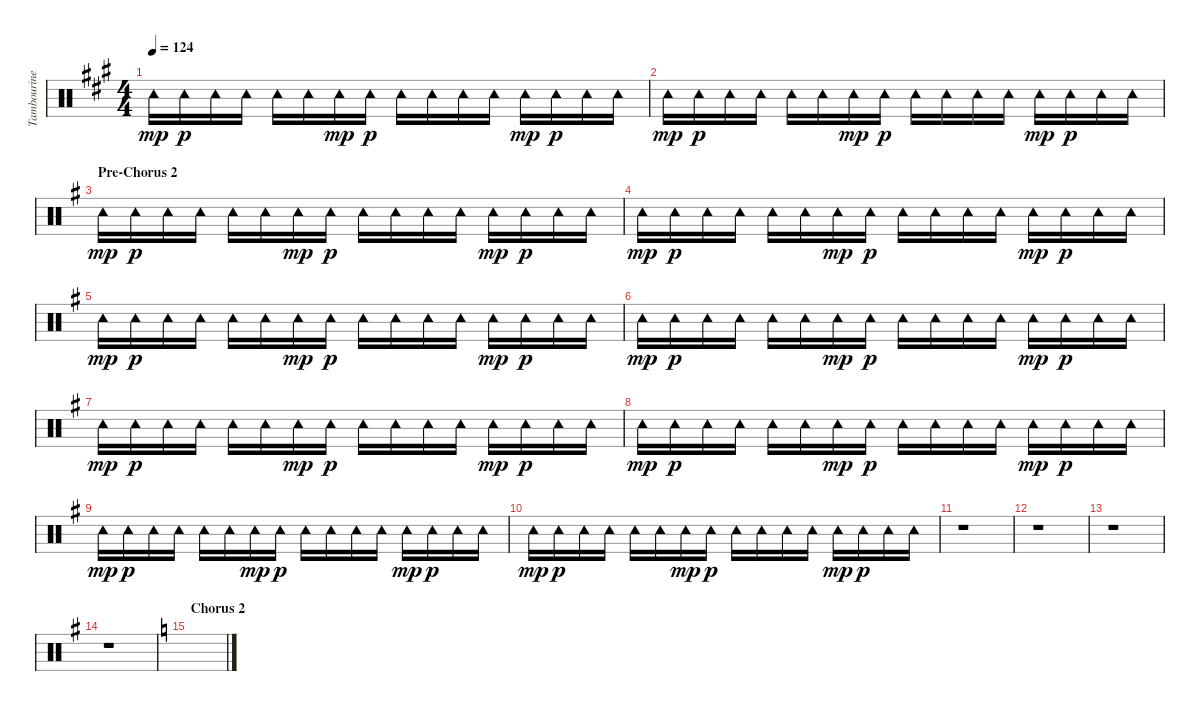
\track ("Tambourine" "Tambourine") {instrument percussion}
\staff {score}
\articulation defaults
\ts (4 4)
\tempo 124
\clef neutral
\ks a "Tambourine (hit)".16{dy mp} "Tambourine (hit)".16{dy p} "Tambourine (hit)".16 "Tambourine (hit)".16 "Tambourine (hit)".16 "Tambourine (hit)".16 "Tambourine (hit)".16{dy mp} "Tambourine (hit)".16{dy p} "Tambourine (hit)".16 "Tambourine (hit)".16 "Tambourine (hit)".16 "Tambourine (hit)".16 "Tambourine (hit)".16{dy mp} "Tambourine (hit)".16{dy p} "Tambourine (hit)".16 "Tambourine (hit)".16
|
"Tambourine (hit)".16{dy mp} "Tambourine (hit)".16{dy p} "Tambourine (hit)".16 "Tambourine (hit)".16 "Tambourine (hit)".16 "Tambourine (hit)".16 "Tambourine (hit)".16{dy mp} "Tambourine (hit)".16{dy p} "Tambourine (hit)".16 "Tambourine (hit)".16 "Tambourine (hit)".16 "Tambourine (hit)".16 "Tambourine (hit)".16{dy mp} "Tambourine (hit)".16{dy p} "Tambourine (hit)".16 "Tambourine (hit)".16 |
\section ("" "Pre-Chorus 2")
\ks g "Tambourine (hit)".16{dy mp} "Tambourine (hit)".16{dy p} "Tambourine (hit)".16 "Tambourine (hit)".16 "Tambourine (hit)".16 "Tambourine (hit)".16 "Tambourine (hit)".16{dy mp} "Tambourine (hit)".16{dy p} "Tambourine (hit)".16 "Tambourine (hit)".16 "Tambourine (hit)".16 "Tambourine (hit)".16 "Tambourine (hit)".16{dy mp} "Tambourine (hit)".16{dy p} "Tambourine (hit)".16 "Tambourine (hit)".16
|
"Tambourine (hit)".16{dy mp} "Tambourine (hit)".16{dy p} "Tambourine (hit)".16 "Tambourine (hit)".16 "Tambourine (hit)".16 "Tambourine (hit)".16 "Tambourine (hit)".16{dy mp} "Tambourine (hit)".16{dy p} "Tambourine (hit)".16 "Tambourine (hit)".16 "Tambourine (hit)".16 "Tambourine (hit)".16 "Tambourine (hit)".16{dy mp} "Tambourine (hit)".16{dy p} "Tambourine (hit)".16 "Tambourine (hit)".16 |
"Tambourine (hit)".16{dy mp} "Tambourine (hit)".16{dy p} "Tambourine (hit)".16 "Tambourine (hit)".16 "Tambourine (hit)".16 "Tambourine (hit)".16 "Tambourine (hit)".16{dy mp} "Tambourine (hit)".16{dy p} "Tambourine (hit)".16 "Tambourine (hit)".16 "Tambourine (hit)".16 "Tambourine (hit)".16 "Tambourine (hit)".16{dy mp} "Tambourine (hit)".16{dy p} "Tambourine (hit)".16 "Tambourine (hit)".16 |
"Tambourine (hit)".16{dy mp} "Tambourine (hit)".16{dy p} "Tambourine (hit)".16 "Tambourine (hit)".16 "Tambourine (hit)".16 "Tambourine (hit)".16 "Tambourine (hit)".16{dy mp} "Tambourine (hit)".16{dy p} "Tambourine (hit)".16 "Tambourine (hit)".16 "Tambourine (hit)".16 "Tambourine (hit)".16 "Tambourine (hit)".16{dy mp} "Tambourine (hit)".16{dy p} "Tambourine (hit)".16 "Tambourine (hit)".16 |
"Tambourine (hit)".16{dy mp} "Tambourine (hit)".16{dy p} "Tambourine (hit)".16 "Tambourine (hit)".16 "Tambourine (hit)".16 "Tambourine (hit)".16 "Tambourine (hit)".16{dy mp} "Tambourine (hit)".16{dy p} "Tambourine (hit)".16 "Tambourine (hit)".16 "Tambourine (hit)".16 "Tambourine (hit)".16 "Tambourine (hit)".16{dy mp} "Tambourine (hit)".16{dy p} "Tambourine (hit)".16 "Tambourine (hit)".16 |
"Tambourine (hit)".16{dy mp} "Tambourine (hit)".16{dy p} "Tambourine (hit)".16 "Tambourine (hit)".16 "Tambourine (hit)".16 "Tambourine (hit)".16 "Tambourine (hit)".16{dy mp} "Tambourine (hit)".16{dy p} "Tambourine (hit)".16 "Tambourine (hit)".16 "Tambourine (hit)".16 "Tambourine (hit)".16 "Tambourine (hit)".16{dy mp} "Tambourine (hit)".16{dy p} "Tambourine (hit)".16 "Tambourine (hit)".16 |
"Tambourine (hit)".16{dy mp} "Tambourine (hit)".16{dy p} "Tambourine (hit)".16 "Tambourine (hit)".16 "Tambourine (hit)".16 "Tambourine (hit)".16 "Tambourine (hit)".16{dy mp} "Tambourine (hit)".16{dy p} "Tambourine (hit)".16 "Tambourine (hit)".16 "Tambourine (hit)".16 "Tambourine (hit)".16 "Tambourine (hit)".16{dy mp} "Tambourine (hit)".16{dy p} "Tambourine (hit)".16 "Tambourine (hit)".16 |
"Tambourine (hit)".16{dy mp} "Tambourine (hit)".16{dy p} "Tambourine (hit)".16 "Tambourine (hit)".16 "Tambourine (hit)".16 "Tambourine (hit)".16 "Tambourine (hit)".16{dy mp} "Tambourine (hit)".16{dy p} "Tambourine (hit)".16 "Tambourine (hit)".16 "Tambourine (hit)".16 "Tambourine (hit)".16 "Tambourine (hit)".16{dy mp} "Tambourine (hit)".16{dy p} "Tambourine (hit)".16 "Tambourine (hit)".16 |
r.1 |
r.1 |
r.1 |
r.1 |
\section ("" "Chorus 2")
\ks aminor
